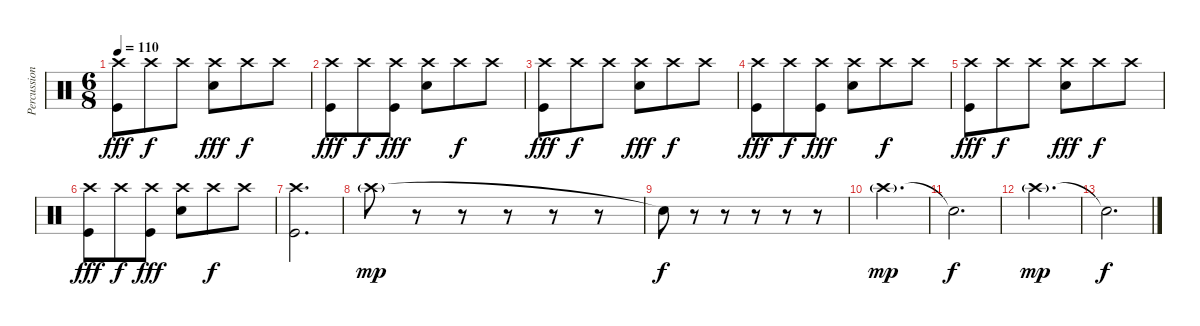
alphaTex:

\track ("Percussion" "Percussion") {instrument percussion}
\staff {score}
\articulation defaults
\ts (6 8)
\tempo 110
\clef neutral
\ks c
("Crash high (hit)" "Kick (hit)").8{dy fff} "Crash high (hit)".8{dy f} "Crash high (hit)".8 ("Crash high (hit)" "Electric Snare (hit)").8{dy fff} "Crash high (hit)".8{dy f} "Crash high (hit)".8 |
("Crash high (hit)" "Kick (hit)").8{dy fff} "Crash high (hit)".8{dy f} ("Crash high (hit)" "Kick (hit)").8{dy fff} ("Crash high (hit)" "Electric Snare (hit)").8 "Crash high (hit)".8{dy f} "Crash high (hit)".8 |
("Crash high (hit)" "Kick (hit)").8{dy fff} "Crash high (hit)".8{dy f} "Crash high (hit)".8 ("Crash high (hit)" "Electric Snare (hit)").8{dy fff} "Crash high (hit)".8{dy f} "Crash high (hit)".8 |
("Crash high (hit)" "Kick (hit)").8{dy fff} "Crash high (hit)".8{dy f} ("Crash high (hit)" "Kick (hit)").8{dy fff} ("Crash high (hit)" "Electric Snare (hit)").8 "Crash high (hit)".8{dy f} "Crash high (hit)".8 |
("Crash high (hit)" "Kick (hit)").8{dy fff} "Crash high (hit)".8{dy f} "Crash high (hit)".8 ("Crash high (hit)" "Electric Snare (hit)").8{dy fff} "Crash high (hit)".8{dy f} "Crash high (hit)".8 |
("Crash high (hit)" "Kick (hit)").8{dy fff} "Crash high (hit)".8{dy f} ("Crash high (hit)" "Kick (hit)").8{dy fff} ("Crash high (hit)" "Electric Snare (hit)").8 "Crash high (hit)".8{dy f} "Crash high (hit)".8 |
("Crash high (hit)" "Kick (hit)").2{d} |
"Crash high (hit)"{g}.8{dy mp} r.8 r.8 r.8 r.8 r.8 |
"Snare (hit)"{t}.8{dy f} r.8 r.8 r.8 r.8 r.8 |
"Crash high (hit)"{g}.2{d dy mp} |
"Snare (hit)"{t}.2{d dy f} |
"Crash high (hit)"{g}.2{d dy mp} |
"Snare (hit)"{t}.2{d dy f}
